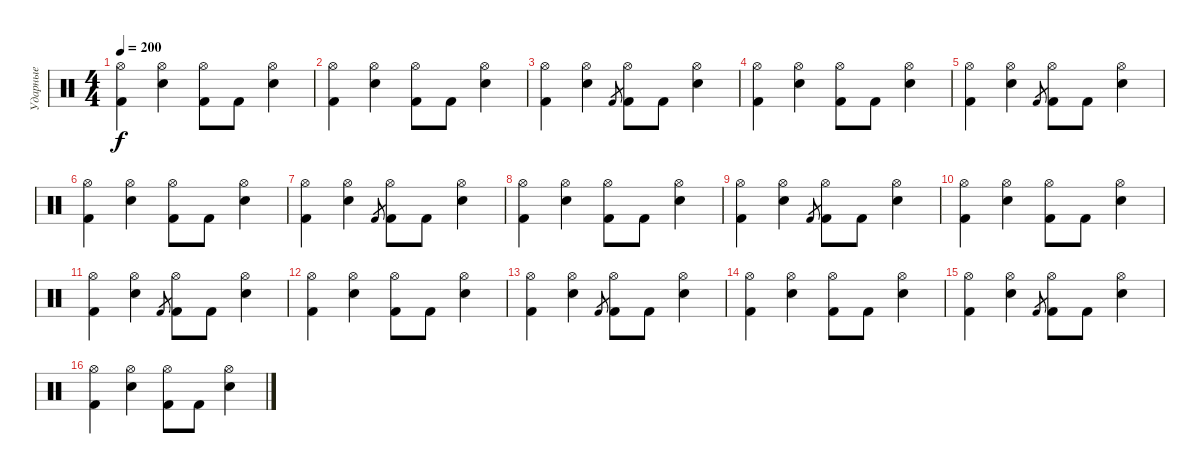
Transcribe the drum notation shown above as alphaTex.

\track ("Ударные" "Ударные") {instrument percussion}
\staff {score}
\articulation defaults
\ts (4 4)
\tempo 200
\clef neutral
\ks c
("Hi-Hat (open)" "Kick (hit) 2").4{dy f} ("Hi-Hat (open)" "Electric Snare (hit)").4 ("Hi-Hat (open)" "Kick (hit) 2").8 "Kick (hit) 2".8 ("Hi-Hat (open)" "Electric Snare (hit)").4 |
("Hi-Hat (open)" "Kick (hit) 2").4 ("Hi-Hat (open)" "Electric Snare (hit)").4 ("Hi-Hat (open)" "Kick (hit) 2").8 "Kick (hit) 2".8 ("Hi-Hat (open)" "Electric Snare (hit)").4 |
("Hi-Hat (open)" "Kick (hit) 2").4 ("Hi-Hat (open)" "Electric Snare (hit)").4 "Kick (hit) 2".8{gr} ("Hi-Hat (open)" "Kick (hit) 2").8 "Kick (hit) 2".8 ("Hi-Hat (open)" "Electric Snare (hit)").4 |
("Hi-Hat (open)" "Kick (hit) 2").4 ("Hi-Hat (open)" "Electric Snare (hit)").4 ("Hi-Hat (open)" "Kick (hit) 2").8 "Kick (hit) 2".8 ("Hi-Hat (open)" "Electric Snare (hit)").4 |
("Hi-Hat (open)" "Kick (hit) 2").4 ("Hi-Hat (open)" "Electric Snare (hit)").4 "Kick (hit) 2".8{gr} ("Hi-Hat (open)" "Kick (hit) 2").8 "Kick (hit) 2".8 ("Hi-Hat (open)" "Electric Snare (hit)").4 |
("Hi-Hat (open)" "Kick (hit) 2").4 ("Hi-Hat (open)" "Electric Snare (hit)").4 ("Hi-Hat (open)" "Kick (hit) 2").8 "Kick (hit) 2".8 ("Hi-Hat (open)" "Electric Snare (hit)").4 |
("Hi-Hat (open)" "Kick (hit) 2").4 ("Hi-Hat (open)" "Electric Snare (hit)").4 "Kick (hit) 2".8{gr} ("Hi-Hat (open)" "Kick (hit) 2").8 "Kick (hit) 2".8 ("Hi-Hat (open)" "Electric Snare (hit)").4 |
("Hi-Hat (open)" "Kick (hit) 2").4 ("Hi-Hat (open)" "Electric Snare (hit)").4 ("Hi-Hat (open)" "Kick (hit) 2").8 "Kick (hit) 2".8 ("Hi-Hat (open)" "Electric Snare (hit)").4 |
("Hi-Hat (open)" "Kick (hit) 2").4 ("Hi-Hat (open)" "Electric Snare (hit)").4 "Kick (hit) 2".8{gr} ("Hi-Hat (open)" "Kick (hit) 2").8 "Kick (hit) 2".8 ("Hi-Hat (open)" "Electric Snare (hit)").4 |
("Hi-Hat (open)" "Kick (hit) 2").4 ("Hi-Hat (open)" "Electric Snare (hit)").4 ("Hi-Hat (open)" "Kick (hit) 2").8 "Kick (hit) 2".8 ("Hi-Hat (open)" "Electric Snare (hit)").4 |
("Hi-Hat (open)" "Kick (hit) 2").4 ("Hi-Hat (open)" "Electric Snare (hit)").4 "Kick (hit) 2".8{gr} ("Hi-Hat (open)" "Kick (hit) 2").8 "Kick (hit) 2".8 ("Hi-Hat (open)" "Electric Snare (hit)").4 |
("Hi-Hat (open)" "Kick (hit) 2").4{volume 0} ("Hi-Hat (open)" "Electric Snare (hit)").4 ("Hi-Hat (open)" "Kick (hit) 2").8 "Kick (hit) 2".8 ("Hi-Hat (open)" "Electric Snare (hit)").4 |
("Hi-Hat (open)" "Kick (hit) 2").4 ("Hi-Hat (open)" "Electric Snare (hit)").4 "Kick (hit) 2".8{gr} ("Hi-Hat (open)" "Kick (hit) 2").8 "Kick (hit) 2".8 ("Hi-Hat (open)" "Electric Snare (hit)").4 |
("Hi-Hat (open)" "Kick (hit) 2").4 ("Hi-Hat (open)" "Electric Snare (hit)").4 ("Hi-Hat (open)" "Kick (hit) 2").8 "Kick (hit) 2".8 ("Hi-Hat (open)" "Electric Snare (hit)").4 |
("Hi-Hat (open)" "Kick (hit) 2").4 ("Hi-Hat (open)" "Electric Snare (hit)").4 "Kick (hit) 2".8{gr} ("Hi-Hat (open)" "Kick (hit) 2").8 "Kick (hit) 2".8 ("Hi-Hat (open)" "Electric Snare (hit)").4 |
("Hi-Hat (open)" "Kick (hit) 2").4 ("Hi-Hat (open)" "Electric Snare (hit)").4 ("Hi-Hat (open)" "Kick (hit) 2").8 "Kick (hit) 2".8 ("Hi-Hat (open)" "Electric Snare (hit)").4
